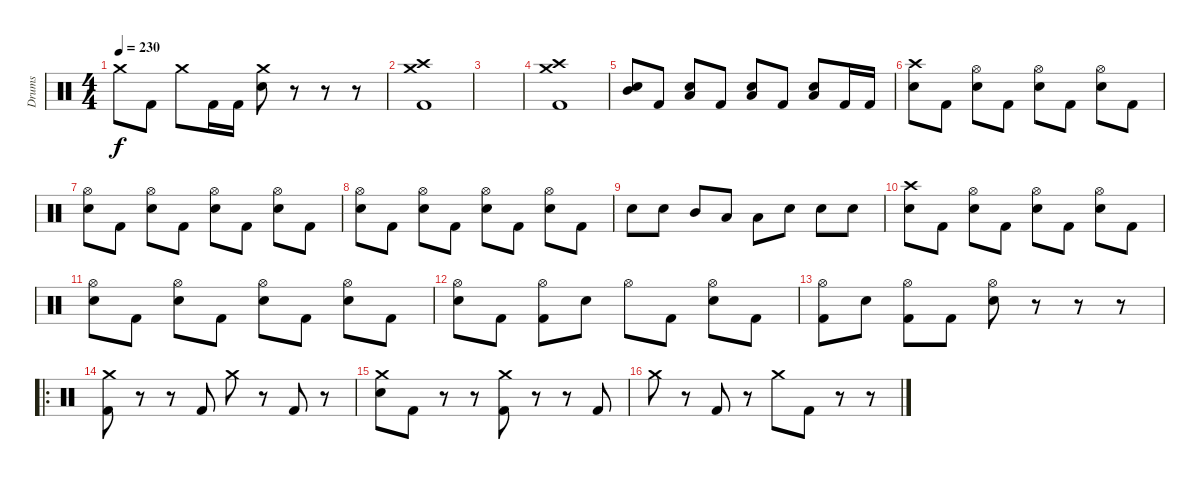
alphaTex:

\track ("Drums" "Drums") {instrument percussion}
\staff {score}
\articulation defaults
\ts (4 4)
\tempo 230
\clef neutral
\ks c "Crash medium (hit)".8{dy f} "Kick (hit) 2".8 "Crash medium (hit)".8 "Kick (hit) 2".16 "Kick (hit) 2".16
("Electric Snare (hit)" "Crash medium (hit)").8 r.8 r.8 r.8 |
("Kick (hit) 2" "Crash high (hit)" "Crash medium (hit)").1 |
|
("Kick (hit) 2" "Crash high (hit)" "Crash medium (hit)").1 |
("Electric Snare (hit)" "Mid Tom (hit)").8 "Kick (hit) 2".8 ("Electric Snare (hit)" "Low Tom (hit)").8 "Kick (hit) 2".8 ("Electric Snare (hit)" "Low Tom (hit)").8 "Kick (hit) 2".8 ("Electric Snare (hit)" "Low Tom (hit)").8 "Kick (hit) 2".16 "Kick (hit) 2".16 |
("Electric Snare (hit)" "Crash high (hit)").8 "Kick (hit) 2".8 ("Electric Snare (hit)" "Hi-Hat (open)").8 "Kick (hit) 2".8 ("Electric Snare (hit)" "Hi-Hat (open)").8 "Kick (hit) 2".8 ("Electric Snare (hit)" "Hi-Hat (open)").8 "Kick (hit) 2".8 |
("Electric Snare (hit)" "Hi-Hat (open)").8 "Kick (hit) 2".8 ("Electric Snare (hit)" "Hi-Hat (open)").8 "Kick (hit) 2".8 ("Electric Snare (hit)" "Hi-Hat (open)").8 "Kick (hit) 2".8 ("Electric Snare (hit)" "Hi-Hat (open)").8 "Kick (hit) 2".8 |
("Electric Snare (hit)" "Hi-Hat (open)").8 "Kick (hit) 2".8 ("Electric Snare (hit)" "Hi-Hat (open)").8 "Kick (hit) 2".8 ("Electric Snare (hit)" "Hi-Hat (open)").8 "Kick (hit) 2".8 ("Electric Snare (hit)" "Hi-Hat (open)").8 "Kick (hit) 2".8 |
"Electric Snare (hit)".8 "Electric Snare (hit)".8 "Mid Tom (hit)".8 "Low Tom (hit)".8 "Low Tom (hit)".8 "Electric Snare (hit)".8 "Electric Snare (hit)".8 "Electric Snare (hit)".8 |
("Electric Snare (hit)" "Crash high (hit)").8 "Kick (hit) 2".8 ("Electric Snare (hit)" "Hi-Hat (open)").8 "Kick (hit) 2".8 ("Electric Snare (hit)" "Hi-Hat (open)").8 "Kick (hit) 2".8 ("Electric Snare (hit)" "Hi-Hat (open)").8 "Kick (hit) 2".8 |
("Electric Snare (hit)" "Hi-Hat (open)").8 "Kick (hit) 2".8 ("Electric Snare (hit)" "Hi-Hat (open)").8 "Kick (hit) 2".8 ("Electric Snare (hit)" "Hi-Hat (open)").8 "Kick (hit) 2".8 ("Electric Snare (hit)" "Hi-Hat (open)").8 "Kick (hit) 2".8 |
("Electric Snare (hit)" "Hi-Hat (open)").8 "Kick (hit) 2".8 ("Kick (hit) 2" "Hi-Hat (open)").8 "Electric Snare (hit)".8 "Hi-Hat (open)".8 "Kick (hit) 2".8 ("Electric Snare (hit)" "Hi-Hat (open)").8 "Kick (hit) 2".8 |
("Kick (hit) 2" "Hi-Hat (open)").8 "Electric Snare (hit)".8 ("Kick (hit) 2" "Hi-Hat (open)").8 "Kick (hit) 2".8 ("Electric Snare (hit)" "Hi-Hat (open)").8 r.8 r.8 r.8 |
\ro
("Kick (hit) 2" "Crash medium (hit)").8 r.8 r.8 "Kick (hit) 2".8 "Crash medium (hit)".8 r.8 "Kick (hit) 2".8 r.8 |
("Electric Snare (hit)" "Crash medium (hit)").8 "Kick (hit) 2".8 r.8 r.8 ("Kick (hit) 2" "Crash medium (hit)").8 r.8 r.8 "Kick (hit) 2".8 |
"Crash medium (hit)".8 r.8 "Kick (hit) 2".8 r.8 "Crash medium (hit)".8 "Kick (hit) 2".8 r.8 r.8
